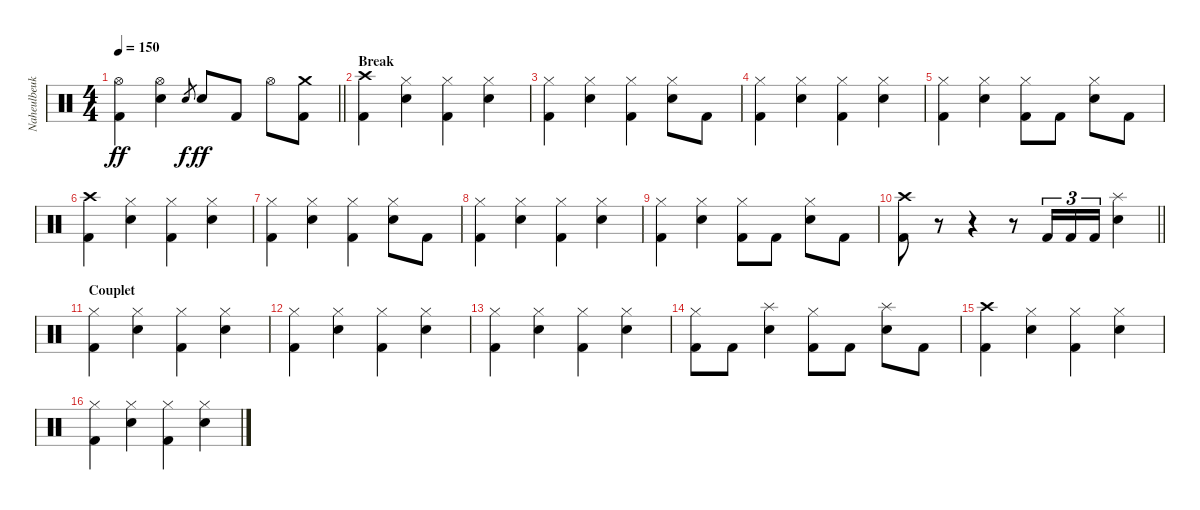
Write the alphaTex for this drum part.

\track ("Naheulbeuk" "Naheulbeuk") {instrument percussion}
\staff {score}
\articulation defaults
\ts (4 4)
\tempo 150
\clef neutral
\barLineRight lightlight
\ks c
("Hi-Hat (open)" "Kick (hit) 2").4{dy ff} ("Hi-Hat (open)" "Snare (hit) 2").4 "Snare (hit) 2".8{gr dy f} "Snare (hit) 2".8{dy ff} "Kick (hit) 2".8 "Hi-Hat (open)".8 ("Crash medium (hit)" "Kick (hit) 2").8 |
\section ("" "Break")
("Crash high (hit)" "Kick (hit) 2").4 ("Hi-Hat (closed)" "Snare (hit) 2").4 ("Hi-Hat (closed)" "Kick (hit) 2").4 ("Hi-Hat (closed)" "Snare (hit) 2").4 |
("Hi-Hat (closed)" "Kick (hit) 2").4 ("Hi-Hat (closed)" "Snare (hit) 2").4 ("Hi-Hat (closed)" "Kick (hit) 2").4 ("Hi-Hat (closed)" "Snare (hit) 2").8 "Kick (hit) 2".8 |
("Hi-Hat (closed)" "Kick (hit) 2").4 ("Hi-Hat (closed)" "Snare (hit) 2").4 ("Hi-Hat (closed)" "Kick (hit) 2").4 ("Hi-Hat (closed)" "Snare (hit) 2").4 |
("Hi-Hat (closed)" "Kick (hit) 2").4 ("Hi-Hat (closed)" "Snare (hit) 2").4 ("Hi-Hat (closed)" "Kick (hit) 2").8 "Kick (hit) 2".8 ("Hi-Hat (closed)" "Snare (hit) 2").8 "Kick (hit) 2".8 |
("Crash high (hit)" "Kick (hit) 2").4 ("Hi-Hat (closed)" "Snare (hit) 2").4 ("Hi-Hat (closed)" "Kick (hit) 2").4 ("Hi-Hat (closed)" "Snare (hit) 2").4 |
("Hi-Hat (closed)" "Kick (hit) 2").4 ("Hi-Hat (closed)" "Snare (hit) 2").4 ("Hi-Hat (closed)" "Kick (hit) 2").4 ("Hi-Hat (closed)" "Snare (hit) 2").8 "Kick (hit) 2".8 |
("Hi-Hat (closed)" "Kick (hit) 2").4 ("Hi-Hat (closed)" "Snare (hit) 2").4 ("Hi-Hat (closed)" "Kick (hit) 2").4 ("Hi-Hat (closed)" "Snare (hit) 2").4 |
("Hi-Hat (closed)" "Kick (hit) 2").4 ("Hi-Hat (closed)" "Snare (hit) 2").4 ("Hi-Hat (closed)" "Kick (hit) 2").8 "Kick (hit) 2".8 ("Hi-Hat (closed)" "Snare (hit) 2").8 "Kick (hit) 2".8 |
\barLineRight lightlight
("Crash high (hit)" "Kick (hit) 2").8 r.8 r.4 r.8 "Kick (hit) 2".16{tu (3 2)} "Kick (hit) 2".16{tu (3 2)} "Kick (hit) 2".16{tu (3 2)} ("Splash (hit)" "Snare (hit) 2").4 |
\section ("" "Couplet")
("Hi-Hat (closed)" "Kick (hit) 2").4 ("Hi-Hat (closed)" "Snare (hit) 2").4 ("Hi-Hat (closed)" "Kick (hit) 2").4 ("Hi-Hat (closed)" "Snare (hit) 2").4 |
("Hi-Hat (closed)" "Kick (hit) 2").4 ("Hi-Hat (closed)" "Snare (hit) 2").4 ("Hi-Hat (closed)" "Kick (hit) 2").4 ("Hi-Hat (closed)" "Snare (hit) 2").4 |
("Hi-Hat (closed)" "Kick (hit) 2").4 ("Hi-Hat (closed)" "Snare (hit) 2").4 ("Hi-Hat (closed)" "Kick (hit) 2").4 ("Hi-Hat (closed)" "Snare (hit) 2").4 |
("Hi-Hat (closed)" "Kick (hit) 2").8 "Kick (hit) 2".8 ("Splash (hit)" "Snare (hit) 2").4 ("Hi-Hat (closed)" "Kick (hit) 2").8 "Kick (hit) 2".8 ("Splash (hit)" "Snare (hit) 2").8 "Kick (hit) 2".8 |
("Crash high (hit)" "Kick (hit) 2").4 ("Hi-Hat (closed)" "Snare (hit) 2").4 ("Hi-Hat (closed)" "Kick (hit) 2").4 ("Hi-Hat (closed)" "Snare (hit) 2").4 |
("Hi-Hat (closed)" "Kick (hit) 2").4 ("Hi-Hat (closed)" "Snare (hit) 2").4 ("Hi-Hat (closed)" "Kick (hit) 2").4 ("Hi-Hat (closed)" "Snare (hit) 2").4
